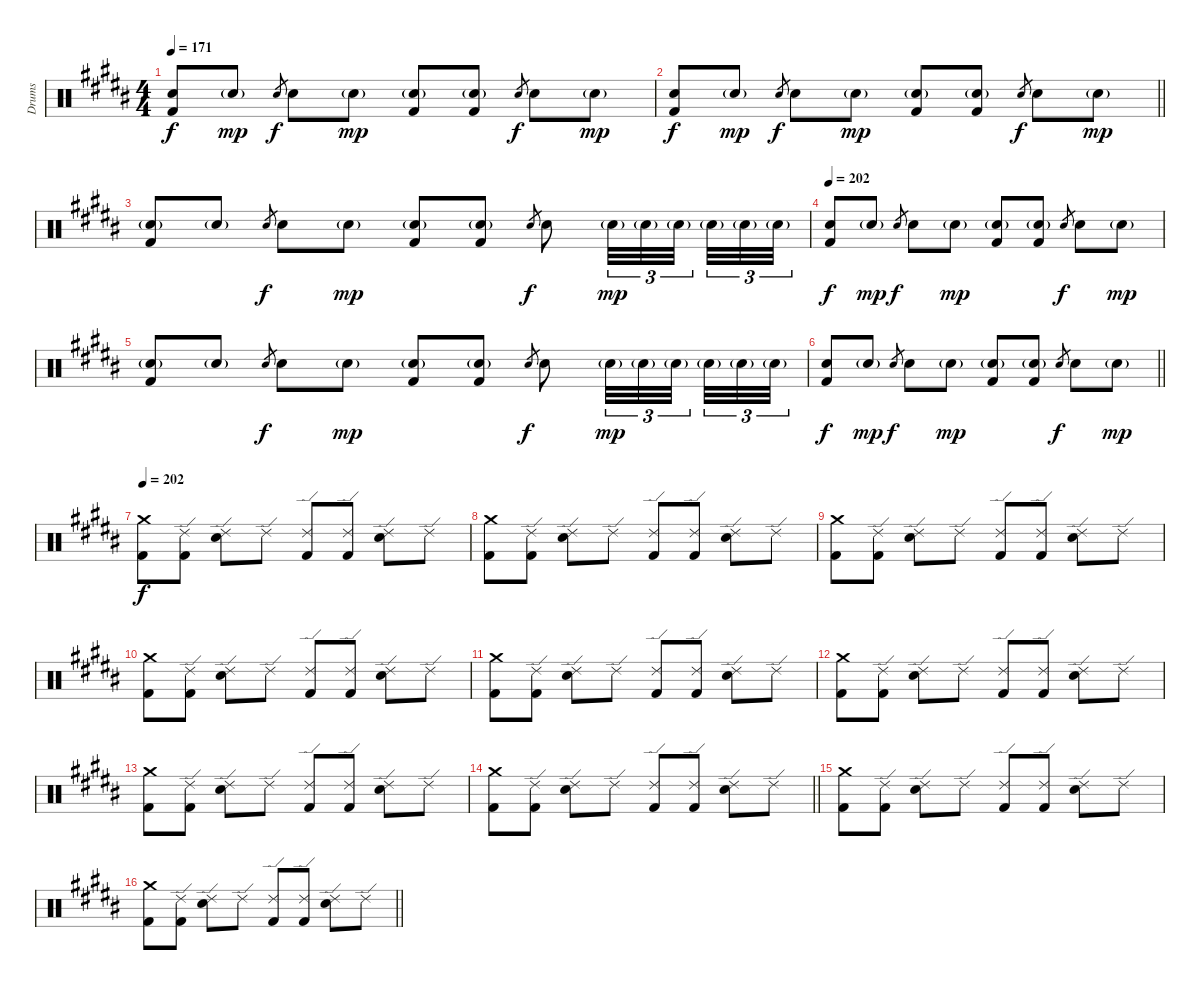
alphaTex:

\track ("Drums" "Drums") {instrument percussion}
\staff {score}
\articulation defaults
\ts (4 4)
\tempo 171
\clef neutral
\ks g#minor
("Electric Snare (hit)" "Kick (hit) 2").8{dy f} "Electric Snare (hit)"{g}.8{dy mp} "Electric Snare (hit)".8{gr dy f} "Electric Snare (hit)".8 "Electric Snare (hit)"{g}.8{dy mp} ("Electric Snare (hit)"{g} "Kick (hit) 2").8 ("Electric Snare (hit)"{g} "Kick (hit) 2").8 "Electric Snare (hit)".8{gr dy f} "Electric Snare (hit)".8 "Electric Snare (hit)"{g}.8{dy mp} |
\barLineRight lightlight
("Electric Snare (hit)" "Kick (hit) 2").8{dy f} "Electric Snare (hit)"{g}.8{dy mp} "Electric Snare (hit)".8{gr dy f} "Electric Snare (hit)".8 "Electric Snare (hit)"{g}.8{dy mp} ("Electric Snare (hit)"{g} "Kick (hit) 2").8 ("Electric Snare (hit)"{g} "Kick (hit) 2").8 "Electric Snare (hit)".8{gr dy f} "Electric Snare (hit)".8 "Electric Snare (hit)"{g}.8{dy mp} |
("Electric Snare (hit)"{g} "Kick (hit) 2").8 "Electric Snare (hit)"{g}.8 "Electric Snare (hit)".8{gr dy f} "Electric Snare (hit)".8 "Electric Snare (hit)"{g}.8{dy mp} ("Electric Snare (hit)"{g} "Kick (hit) 2").8 ("Electric Snare (hit)"{g} "Kick (hit) 2").8 "Electric Snare (hit)".8{gr dy f} "Electric Snare (hit)".8 "Electric Snare (hit)"{g}.32{tu (3 2) dy mp} "Electric Snare (hit)"{g}.32{tu (3 2)} "Electric Snare (hit)"{g}.32{tu (3 2) beam splitsecondary} "Electric Snare (hit)"{g}.32{tu (3 2)} "Electric Snare (hit)"{g}.32{tu (3 2)} "Electric Snare (hit)"{g}.32{tu (3 2)} |
\tempo 202
("Electric Snare (hit)" "Kick (hit) 2").8{dy f} "Electric Snare (hit)"{g}.8{dy mp} "Electric Snare (hit)".8{gr dy f} "Electric Snare (hit)".8 "Electric Snare (hit)"{g}.8{dy mp} ("Electric Snare (hit)"{g} "Kick (hit) 2").8 ("Electric Snare (hit)"{g} "Kick (hit) 2").8 "Electric Snare (hit)".8{gr dy f} "Electric Snare (hit)".8 "Electric Snare (hit)"{g}.8{dy mp} |
("Electric Snare (hit)"{g} "Kick (hit) 2").8 "Electric Snare (hit)"{g}.8 "Electric Snare (hit)".8{gr dy f} "Electric Snare (hit)".8 "Electric Snare (hit)"{g}.8{dy mp} ("Electric Snare (hit)"{g} "Kick (hit) 2").8 ("Electric Snare (hit)"{g} "Kick (hit) 2").8 "Electric Snare (hit)".8{gr dy f} "Electric Snare (hit)".8 "Electric Snare (hit)"{g}.32{tu (3 2) dy mp} "Electric Snare (hit)"{g}.32{tu (3 2)} "Electric Snare (hit)"{g}.32{tu (3 2) beam splitsecondary} "Electric Snare (hit)"{g}.32{tu (3 2)} "Electric Snare (hit)"{g}.32{tu (3 2)} "Electric Snare (hit)"{g}.32{tu (3 2)} |
\barLineRight lightlight
("Electric Snare (hit)" "Kick (hit) 2").8{dy f} "Electric Snare (hit)"{g}.8{dy mp} "Electric Snare (hit)".8{gr dy f} "Electric Snare (hit)".8 "Electric Snare (hit)"{g}.8{dy mp} ("Electric Snare (hit)"{g} "Kick (hit) 2").8 ("Electric Snare (hit)"{g} "Kick (hit) 2").8 "Electric Snare (hit)".8{gr dy f} "Electric Snare (hit)".8 "Electric Snare (hit)"{g}.8{dy mp} |
\tempo 202
("Crash medium (hit)" "Kick (hit) 2").8{dy f} ("Ride (edge) 2" "Kick (hit) 2").8 ("Ride (edge) 2" "Electric Snare (hit)").8 "Ride (edge) 2".8 ("Ride (edge) 2" "Kick (hit) 2").8 ("Ride (edge) 2" "Kick (hit) 2").8 ("Ride (edge) 2" "Electric Snare (hit)").8 "Ride (edge) 2".8 |
("Crash medium (hit)" "Kick (hit) 2").8 ("Ride (edge) 2" "Kick (hit) 2").8 ("Ride (edge) 2" "Electric Snare (hit)").8 "Ride (edge) 2".8 ("Ride (edge) 2" "Kick (hit) 2").8 ("Ride (edge) 2" "Kick (hit) 2").8 ("Ride (edge) 2" "Electric Snare (hit)").8 "Ride (edge) 2".8 |
("Crash medium (hit)" "Kick (hit) 2").8 ("Ride (edge) 2" "Kick (hit) 2").8 ("Ride (edge) 2" "Electric Snare (hit)").8 "Ride (edge) 2".8 ("Ride (edge) 2" "Kick (hit) 2").8 ("Ride (edge) 2" "Kick (hit) 2").8 ("Ride (edge) 2" "Electric Snare (hit)").8 "Ride (edge) 2".8 |
("Crash medium (hit)" "Kick (hit) 2").8 ("Ride (edge) 2" "Kick (hit) 2").8 ("Ride (edge) 2" "Electric Snare (hit)").8 "Ride (edge) 2".8 ("Ride (edge) 2" "Kick (hit) 2").8 ("Ride (edge) 2" "Kick (hit) 2").8 ("Ride (edge) 2" "Electric Snare (hit)").8 "Ride (edge) 2".8 |
("Crash medium (hit)" "Kick (hit) 2").8 ("Ride (edge) 2" "Kick (hit) 2").8 ("Ride (edge) 2" "Electric Snare (hit)").8 "Ride (edge) 2".8 ("Ride (edge) 2" "Kick (hit) 2").8 ("Ride (edge) 2" "Kick (hit) 2").8 ("Ride (edge) 2" "Electric Snare (hit)").8 "Ride (edge) 2".8 |
("Crash medium (hit)" "Kick (hit) 2").8 ("Ride (edge) 2" "Kick (hit) 2").8 ("Ride (edge) 2" "Electric Snare (hit)").8 "Ride (edge) 2".8 ("Ride (edge) 2" "Kick (hit) 2").8 ("Ride (edge) 2" "Kick (hit) 2").8 ("Ride (edge) 2" "Electric Snare (hit)").8 "Ride (edge) 2".8 |
("Crash medium (hit)" "Kick (hit) 2").8 ("Ride (edge) 2" "Kick (hit) 2").8 ("Ride (edge) 2" "Electric Snare (hit)").8 "Ride (edge) 2".8 ("Ride (edge) 2" "Kick (hit) 2").8 ("Ride (edge) 2" "Kick (hit) 2").8 ("Ride (edge) 2" "Electric Snare (hit)").8 "Ride (edge) 2".8 |
\barLineRight lightlight
("Crash medium (hit)" "Kick (hit) 2").8 ("Ride (edge) 2" "Kick (hit) 2").8 ("Ride (edge) 2" "Electric Snare (hit)").8 "Ride (edge) 2".8 ("Ride (edge) 2" "Kick (hit) 2").8 ("Ride (edge) 2" "Kick (hit) 2").8 ("Ride (edge) 2" "Electric Snare (hit)").8 "Ride (edge) 2".8 |
("Crash medium (hit)" "Kick (hit) 2").8 ("Ride (edge) 2" "Kick (hit) 2").8 ("Ride (edge) 2" "Electric Snare (hit)").8 "Ride (edge) 2".8 ("Ride (edge) 2" "Kick (hit) 2").8 ("Ride (edge) 2" "Kick (hit) 2").8 ("Ride (edge) 2" "Electric Snare (hit)").8 "Ride (edge) 2".8 |
\barLineRight lightlight
("Crash medium (hit)" "Kick (hit) 2").8 ("Ride (edge) 2" "Kick (hit) 2").8 ("Ride (edge) 2" "Electric Snare (hit)").8 "Ride (edge) 2".8 ("Ride (edge) 2" "Kick (hit) 2").8 ("Ride (edge) 2" "Kick (hit) 2").8 ("Ride (edge) 2" "Electric Snare (hit)").8 "Ride (edge) 2".8
